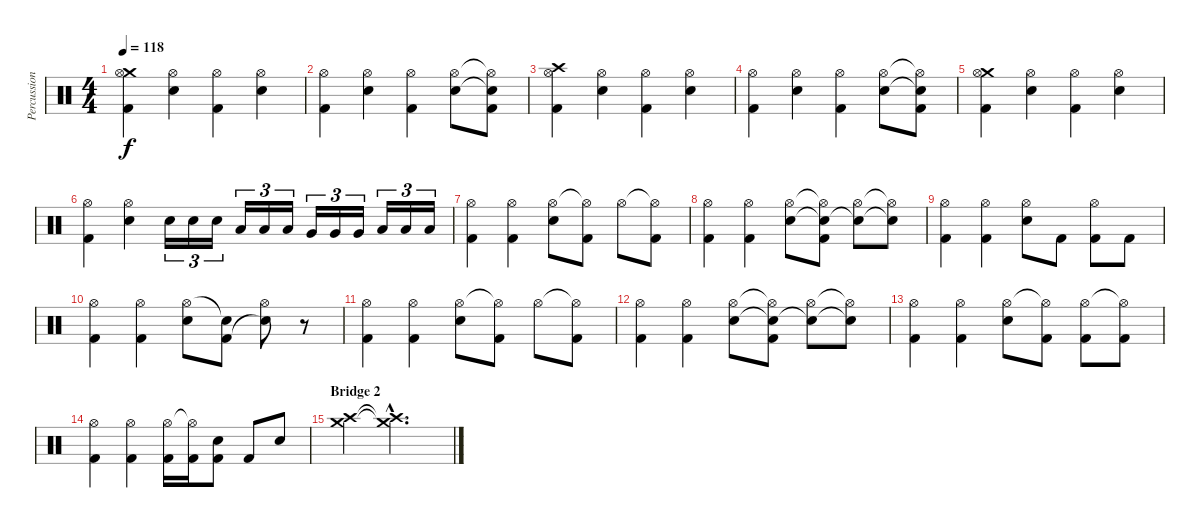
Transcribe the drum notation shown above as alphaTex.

\track ("Percussion" "Percussion") {instrument percussion}
\staff {score}
\articulation defaults
\ts (4 4)
\tempo 118
\clef neutral
\ks c
("Crash medium (hit)" "Hi-Hat (open)" "Kick (hit) 2").4{dy f} ("Hi-Hat (open)" "Electric Snare (hit)").4 ("Hi-Hat (open)" "Kick (hit) 2").4 ("Hi-Hat (open)" "Electric Snare (hit)").4 |
("Hi-Hat (open)" "Kick (hit) 2").4 ("Hi-Hat (open)" "Electric Snare (hit)").4 ("Hi-Hat (open)" "Kick (hit) 2").4 ("Hi-Hat (open)" "Electric Snare (hit)").8 ("Hi-Hat (open)"{t} "Electric Snare (hit)"{t} "Kick (hit) 2").8 |
("Crash high (hit)" "Hi-Hat (open)" "Kick (hit) 2").4 ("Hi-Hat (open)" "Electric Snare (hit)").4 ("Hi-Hat (open)" "Kick (hit) 2").4 ("Hi-Hat (open)" "Electric Snare (hit)").4 |
("Hi-Hat (open)" "Kick (hit) 2").4 ("Hi-Hat (open)" "Electric Snare (hit)").4 ("Hi-Hat (open)" "Kick (hit) 2").4 ("Hi-Hat (open)" "Electric Snare (hit)").8 ("Hi-Hat (open)"{t} "Electric Snare (hit)"{t} "Kick (hit) 2").8 |
("Crash medium (hit)" "Hi-Hat (open)" "Kick (hit) 2").4 ("Hi-Hat (open)" "Electric Snare (hit)").4 ("Hi-Hat (open)" "Kick (hit) 2").4 ("Hi-Hat (open)" "Electric Snare (hit)").4 |
("Hi-Hat (open)" "Kick (hit) 2").4 ("Hi-Hat (open)" "Electric Snare (hit)").4 "Electric Snare (hit)".16{tu (3 2)} "Electric Snare (hit)".16{tu (3 2)} "Electric Snare (hit)".16{tu (3 2)} "Low Tom (hit)".16{tu (3 2)} "Low Tom (hit)".16{tu (3 2)} "Low Tom (hit)".16{tu (3 2)} "Very Low Tom (hit)".16{tu (3 2)} "Very Low Tom (hit)".16{tu (3 2)} "Very Low Tom (hit)".16{tu (3 2)} "Low Floor Tom (hit)".16{tu (3 2)} "Low Floor Tom (hit)".16{tu (3 2)} "Low Floor Tom (hit)".16{tu (3 2)} |
("Hi-Hat (open)" "Kick (hit) 2").4 ("Hi-Hat (open)" "Kick (hit) 2").4 ("Hi-Hat (open)" "Electric Snare (hit)").8 ("Hi-Hat (open)"{t} "Kick (hit) 2").8 "Hi-Hat (open)".8 ("Hi-Hat (open)"{t} "Kick (hit) 2").8 |
("Hi-Hat (open)" "Kick (hit) 2").4 ("Hi-Hat (open)" "Kick (hit) 2").4 ("Hi-Hat (open)" "Electric Snare (hit)").8 ("Hi-Hat (open)"{t} "Electric Snare (hit)"{t} "Kick (hit) 2").8 ("Hi-Hat (open)" "Electric Snare (hit)"{t}).8 ("Hi-Hat (open)"{t} "Electric Snare (hit)"{t}).8 |
("Hi-Hat (open)" "Kick (hit) 2").4 ("Hi-Hat (open)" "Kick (hit) 2").4 ("Hi-Hat (open)" "Electric Snare (hit)").8 "Kick (hit) 2".8 ("Hi-Hat (open)" "Kick (hit) 2").8 "Kick (hit) 2".8 |
("Hi-Hat (open)" "Kick (hit) 2").4 ("Hi-Hat (open)" "Kick (hit) 2").4 ("Hi-Hat (open)" "Electric Snare (hit)").8 ("Electric Snare (hit)"{t} "Kick (hit) 2").8 ("Hi-Hat (open)" "Electric Snare (hit)"{t}).8 r.8 |
("Hi-Hat (open)" "Kick (hit) 2").4 ("Hi-Hat (open)" "Kick (hit) 2").4 ("Hi-Hat (open)" "Electric Snare (hit)").8 ("Hi-Hat (open)"{t} "Kick (hit) 2").8 "Hi-Hat (open)".8 ("Hi-Hat (open)"{t} "Kick (hit) 2").8 |
("Hi-Hat (open)" "Kick (hit) 2").4 ("Hi-Hat (open)" "Kick (hit) 2").4 ("Hi-Hat (open)" "Electric Snare (hit)").8 ("Hi-Hat (open)"{t} "Electric Snare (hit)"{t} "Kick (hit) 2").8 ("Hi-Hat (open)" "Electric Snare (hit)"{t}).8 ("Hi-Hat (open)"{t} "Electric Snare (hit)"{t}).8 |
("Hi-Hat (open)" "Kick (hit) 2").4 ("Hi-Hat (open)" "Kick (hit) 2").4 ("Hi-Hat (open)" "Electric Snare (hit)").8 ("Hi-Hat (open)"{t} "Kick (hit) 2").8 ("Hi-Hat (open)" "Kick (hit) 2").8 ("Hi-Hat (open)"{t} "Kick (hit) 2").8 |
("Hi-Hat (open)" "Kick (hit) 2").4 ("Hi-Hat (open)" "Kick (hit) 2").4 ("Hi-Hat (open)" "Kick (hit) 2").16 ("Hi-Hat (open)"{t} "Kick (hit) 2").16 ("Electric Snare (hit)" "Kick (hit) 2").8 "Kick (hit) 2".8 "Electric Snare (hit)".8 |
\section ("" "Bridge 2")
("Crash high (hit)" "Crash medium (hit)").4 ("Crash high (hit)"{hac t} "Crash medium (hit)"{hac t}).2{d}
